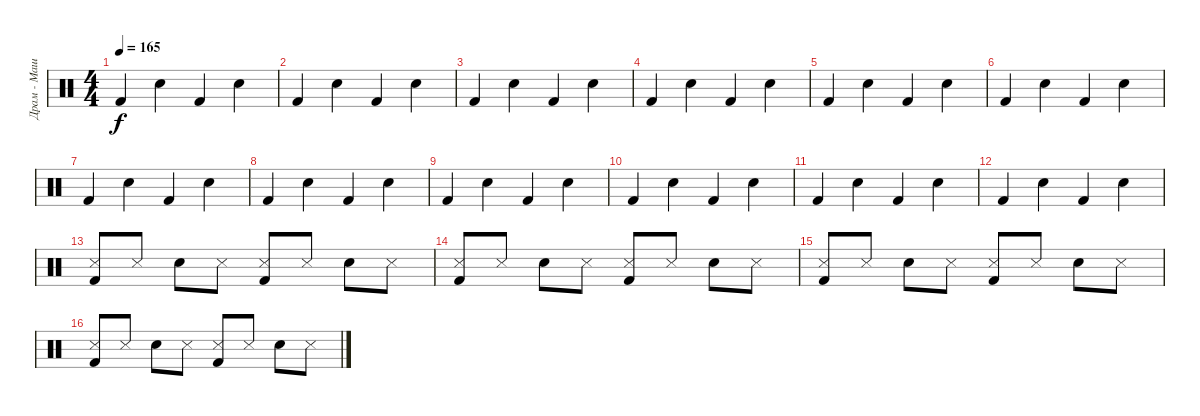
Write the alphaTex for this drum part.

\track ("Драм - Машина" "Драм - Маш") {instrument percussion}
\staff {score}
\articulation defaults
\ts (4 4)
\tempo 165
\clef neutral
\ks c "Kick (hit) 2".4{dy f} "Snare (hit) 2".4 "Kick (hit) 2".4 "Snare (hit) 2".4
|
"Kick (hit) 2".4 "Snare (hit) 2".4 "Kick (hit) 2".4 "Snare (hit) 2".4 |
"Kick (hit) 2".4 "Snare (hit) 2".4 "Kick (hit) 2".4 "Snare (hit) 2".4 |
"Kick (hit) 2".4 "Snare (hit) 2".4 "Kick (hit) 2".4 "Snare (hit) 2".4 |
"Kick (hit) 2".4 "Snare (hit) 2".4 "Kick (hit) 2".4 "Snare (hit) 2".4 |
"Kick (hit) 2".4 "Snare (hit) 2".4 "Kick (hit) 2".4 "Snare (hit) 2".4 |
"Kick (hit) 2".4 "Snare (hit) 2".4 "Kick (hit) 2".4 "Snare (hit) 2".4 |
"Kick (hit) 2".4 "Snare (hit) 2".4 "Kick (hit) 2".4 "Snare (hit) 2".4 |
"Kick (hit) 2".4 "Snare (hit) 2".4 "Kick (hit) 2".4 "Snare (hit) 2".4 |
"Kick (hit) 2".4 "Snare (hit) 2".4 "Kick (hit) 2".4 "Snare (hit) 2".4 |
"Kick (hit) 2".4 "Snare (hit) 2".4 "Kick (hit) 2".4 "Snare (hit) 2".4 |
"Kick (hit) 2".4 "Snare (hit) 2".4 "Kick (hit) 2".4 "Snare (hit) 2".4 |
("Metronome (hit)" "Kick (hit) 2").8 "Metronome (hit)".8 "Snare (hit) 2".8 "Metronome (hit)".8 ("Metronome (hit)" "Kick (hit) 2").8 "Metronome (hit)".8 "Snare (hit) 2".8 "Metronome (hit)".8 |
("Metronome (hit)" "Kick (hit) 2").8 "Metronome (hit)".8 "Snare (hit) 2".8 "Metronome (hit)".8 ("Metronome (hit)" "Kick (hit) 2").8 "Metronome (hit)".8 "Snare (hit) 2".8 "Metronome (hit)".8 |
("Metronome (hit)" "Kick (hit) 2").8 "Metronome (hit)".8 "Snare (hit) 2".8 "Metronome (hit)".8 ("Metronome (hit)" "Kick (hit) 2").8 "Metronome (hit)".8 "Snare (hit) 2".8 "Metronome (hit)".8 |
("Metronome (hit)" "Kick (hit) 2").8 "Metronome (hit)".8 "Snare (hit) 2".8 "Metronome (hit)".8 ("Metronome (hit)" "Kick (hit) 2").8 "Metronome (hit)".8 "Snare (hit) 2".8 "Metronome (hit)".8
